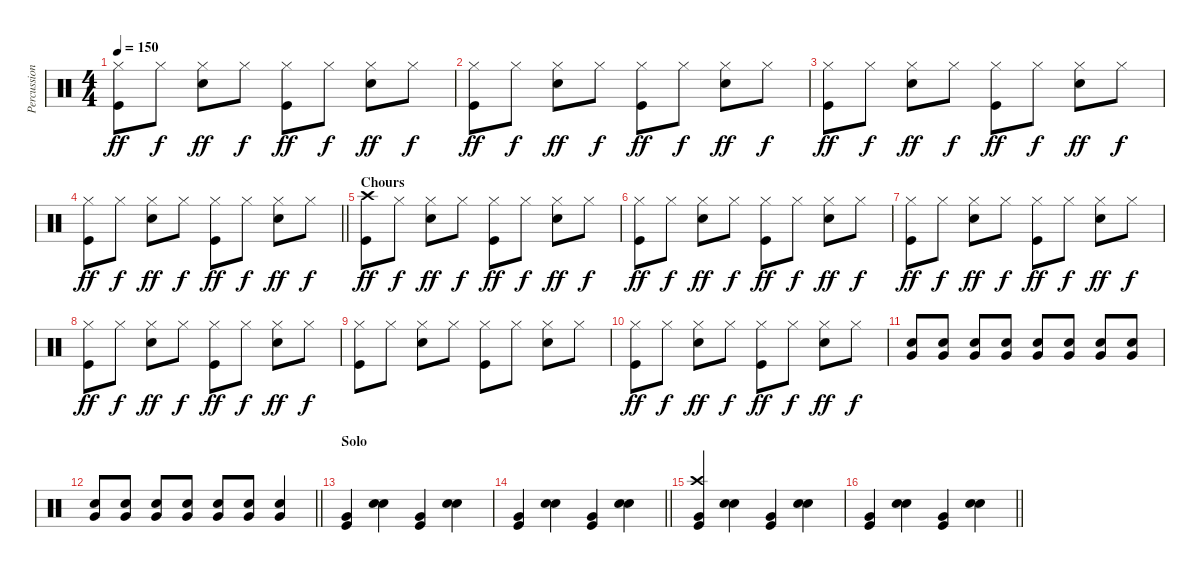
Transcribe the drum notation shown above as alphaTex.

\track ("Percussion" "Percussion") {instrument percussion}
\staff {score}
\articulation defaults
\ts (4 4)
\tempo 150
\clef neutral
\ks c
("Hi-Hat (closed)" "Kick (hit)").8{dy ff} "Hi-Hat (closed)".8{dy f} ("Hi-Hat (closed)" "Snare (hit) 2").8{dy ff} "Hi-Hat (closed)".8{dy f} ("Hi-Hat (closed)" "Kick (hit)").8{dy ff} "Hi-Hat (closed)".8{dy f} ("Hi-Hat (closed)" "Snare (hit) 2").8{dy ff} "Hi-Hat (closed)".8{dy f} |
("Hi-Hat (closed)" "Kick (hit)").8{dy ff} "Hi-Hat (closed)".8{dy f} ("Hi-Hat (closed)" "Snare (hit) 2").8{dy ff} "Hi-Hat (closed)".8{dy f} ("Hi-Hat (closed)" "Kick (hit)").8{dy ff} "Hi-Hat (closed)".8{dy f} ("Hi-Hat (closed)" "Snare (hit) 2").8{dy ff} "Hi-Hat (closed)".8{dy f} |
("Hi-Hat (closed)" "Kick (hit)").8{dy ff} "Hi-Hat (closed)".8{dy f} ("Hi-Hat (closed)" "Snare (hit) 2").8{dy ff} "Hi-Hat (closed)".8{dy f} ("Hi-Hat (closed)" "Kick (hit)").8{dy ff} "Hi-Hat (closed)".8{dy f} ("Hi-Hat (closed)" "Snare (hit) 2").8{dy ff} "Hi-Hat (closed)".8{dy f} |
\barLineRight lightlight
("Hi-Hat (closed)" "Kick (hit)").8{dy ff} "Hi-Hat (closed)".8{dy f} ("Hi-Hat (closed)" "Snare (hit) 2").8{dy ff} "Hi-Hat (closed)".8{dy f} ("Hi-Hat (closed)" "Kick (hit)").8{dy ff} "Hi-Hat (closed)".8{dy f} ("Hi-Hat (closed)" "Snare (hit) 2").8{dy ff} "Hi-Hat (closed)".8{dy f} |
\section ("" "Chours")
("Crash high (hit)" "Kick (hit)").8{dy ff} "Hi-Hat (closed)".8{dy f} ("Hi-Hat (closed)" "Snare (hit) 2").8{dy ff} "Hi-Hat (closed)".8{dy f} ("Hi-Hat (closed)" "Kick (hit)").8{dy ff} "Hi-Hat (closed)".8{dy f} ("Hi-Hat (closed)" "Snare (hit) 2").8{dy ff} "Hi-Hat (closed)".8{dy f} |
("Hi-Hat (closed)" "Kick (hit)").8{dy ff} "Hi-Hat (closed)".8{dy f} ("Hi-Hat (closed)" "Snare (hit) 2").8{dy ff} "Hi-Hat (closed)".8{dy f} ("Hi-Hat (closed)" "Kick (hit)").8{dy ff} "Hi-Hat (closed)".8{dy f} ("Hi-Hat (closed)" "Snare (hit) 2").8{dy ff} "Hi-Hat (closed)".8{dy f} |
("Hi-Hat (closed)" "Kick (hit)").8{dy ff} "Hi-Hat (closed)".8{dy f} ("Hi-Hat (closed)" "Snare (hit) 2").8{dy ff} "Hi-Hat (closed)".8{dy f} ("Hi-Hat (closed)" "Kick (hit)").8{dy ff} "Hi-Hat (closed)".8{dy f} ("Hi-Hat (closed)" "Snare (hit) 2").8{dy ff} "Hi-Hat (closed)".8{dy f} |
("Hi-Hat (closed)" "Kick (hit)").8{dy ff} "Hi-Hat (closed)".8{dy f} ("Hi-Hat (closed)" "Snare (hit) 2").8{dy ff} "Hi-Hat (closed)".8{dy f} ("Hi-Hat (closed)" "Kick (hit)").8{dy ff} "Hi-Hat (closed)".8{dy f} ("Hi-Hat (closed)" "Snare (hit) 2").8{dy ff} "Hi-Hat (closed)".8{dy f} |
("Hi-Hat (closed)" "Kick (hit)").8 "Hi-Hat (closed)".8 ("Hi-Hat (closed)" "Snare (hit) 2").8 "Hi-Hat (closed)".8 ("Hi-Hat (closed)" "Kick (hit)").8 "Hi-Hat (closed)".8 ("Hi-Hat (closed)" "Snare (hit) 2").8 "Hi-Hat (closed)".8 |
("Hi-Hat (closed)" "Kick (hit)").8{dy ff} "Hi-Hat (closed)".8{dy f} ("Hi-Hat (closed)" "Snare (hit) 2").8{dy ff} "Hi-Hat (closed)".8{dy f} ("Hi-Hat (closed)" "Kick (hit)").8{dy ff} "Hi-Hat (closed)".8{dy f} ("Hi-Hat (closed)" "Snare (hit) 2").8{dy ff} "Hi-Hat (closed)".8{dy f} |
("Snare (hit) 2" "Very Low Tom (hit)").8 ("Snare (hit) 2" "Very Low Tom (hit)").8 ("Snare (hit) 2" "Very Low Tom (hit)").8 ("Snare (hit) 2" "Very Low Tom (hit)").8 ("Snare (hit) 2" "Very Low Tom (hit)").8 ("Snare (hit) 2" "Very Low Tom (hit)").8 ("Snare (hit) 2" "Very Low Tom (hit)").8 ("Snare (hit) 2" "Very Low Tom (hit)").8 |
\barLineRight lightlight
("Snare (hit) 2" "Very Low Tom (hit)").8 ("Snare (hit) 2" "Very Low Tom (hit)").8 ("Snare (hit) 2" "Very Low Tom (hit)").8 ("Snare (hit) 2" "Very Low Tom (hit)").8 ("Snare (hit) 2" "Very Low Tom (hit)").8 ("Snare (hit) 2" "Very Low Tom (hit)").8 ("Snare (hit) 2" "Very Low Tom (hit)").4 |
\section ("" "Solo")
("Kick (hit)" "Very Low Tom (hit)").4 ("Snare (hit) 2" "Snare (hit) 2").4 ("Kick (hit)" "Very Low Tom (hit)").4 ("Snare (hit) 2" "Snare (hit) 2").4 |
\barLineRight lightlight
("Kick (hit)" "Very Low Tom (hit)").4 ("Snare (hit) 2" "Snare (hit) 2").4 ("Kick (hit)" "Very Low Tom (hit)").4 ("Snare (hit) 2" "Snare (hit) 2").4 |
("Kick (hit)" "Very Low Tom (hit)" "Crash high (hit)").4 ("Snare (hit) 2" "Snare (hit) 2").4 ("Kick (hit)" "Very Low Tom (hit)").4 ("Snare (hit) 2" "Snare (hit) 2").4 |
\barLineRight lightlight
("Kick (hit)" "Very Low Tom (hit)").4 ("Snare (hit) 2" "Snare (hit) 2").4 ("Kick (hit)" "Very Low Tom (hit)").4 ("Snare (hit) 2" "Snare (hit) 2").4
